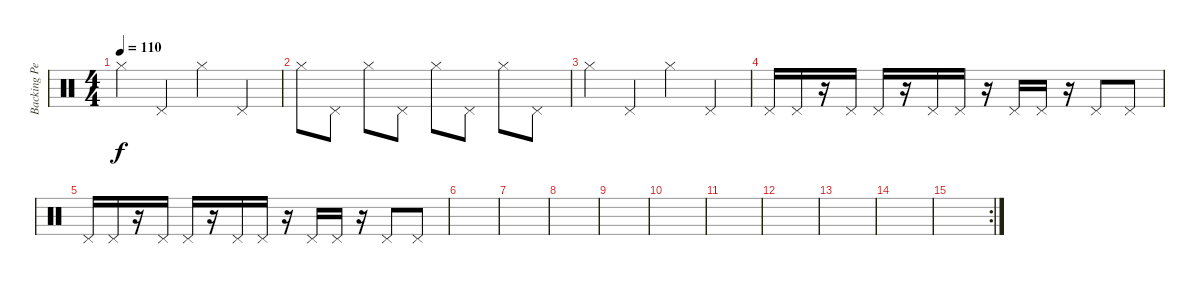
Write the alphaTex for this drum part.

\track ("Backing Percussion" "Backing Pe") {instrument percussion}
\staff {score}
\articulation defaults
\ts (4 4)
\tempo 110
\clef neutral
\ks c "Hi-Hat (closed)".4{dy f} "Pedal Hi-Hat (hit)".4 "Hi-Hat (closed)".4 "Pedal Hi-Hat (hit)".4
|
"Hi-Hat (closed)".8 "Pedal Hi-Hat (hit)".8 "Hi-Hat (closed)".8 "Pedal Hi-Hat (hit)".8 "Hi-Hat (closed)".8 "Pedal Hi-Hat (hit)".8 "Hi-Hat (closed)".8 "Pedal Hi-Hat (hit)".8 |
"Hi-Hat (closed)".4 "Pedal Hi-Hat (hit)".4 "Hi-Hat (closed)".4 "Pedal Hi-Hat (hit)".4 |
"Pedal Hi-Hat (hit)".16 "Pedal Hi-Hat (hit)".16 r.16 "Pedal Hi-Hat (hit)".16 "Pedal Hi-Hat (hit)".16 r.16 "Pedal Hi-Hat (hit)".16 "Pedal Hi-Hat (hit)".16 r.16 "Pedal Hi-Hat (hit)".16 "Pedal Hi-Hat (hit)".16 r.16 "Pedal Hi-Hat (hit)".8 "Pedal Hi-Hat (hit)".8 |
"Pedal Hi-Hat (hit)".16 "Pedal Hi-Hat (hit)".16 r.16 "Pedal Hi-Hat (hit)".16 "Pedal Hi-Hat (hit)".16 r.16 "Pedal Hi-Hat (hit)".16 "Pedal Hi-Hat (hit)".16 r.16 "Pedal Hi-Hat (hit)".16 "Pedal Hi-Hat (hit)".16 r.16 "Pedal Hi-Hat (hit)".8 "Pedal Hi-Hat (hit)".8 |
|
|
|
|
|
|
|
|
|
\rc 2
